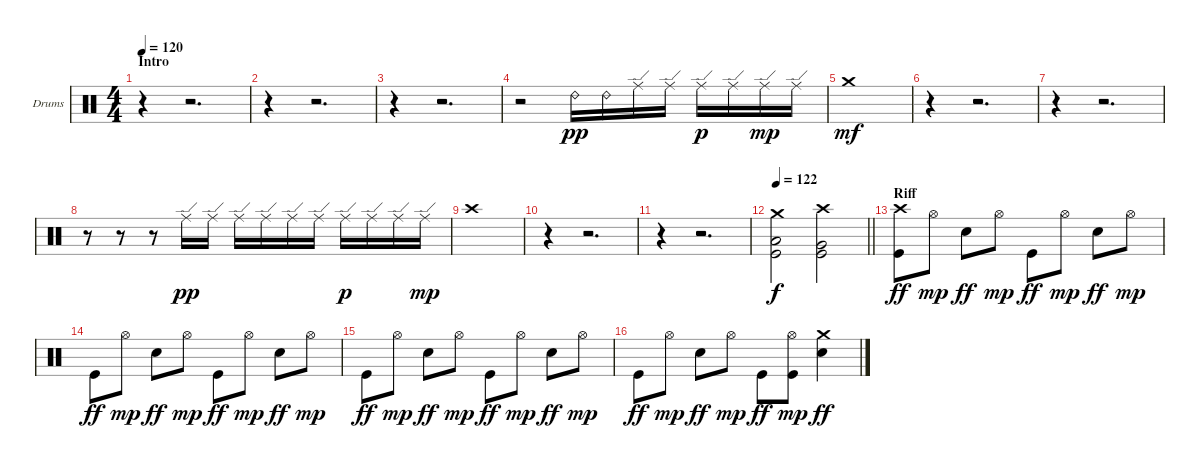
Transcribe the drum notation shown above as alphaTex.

\bracketExtendMode groupsimilarinstruments
\firstSystemTrackNameOrientation horizontal
\otherSystemsTrackNameOrientation horizontal
\track ("Brent Fitz" "Drums") {instrument percussion}
\staff {score}
\articulation defaults
\ts (4 4)
\beaming (8 2 2 2 2)
\section ("" "Intro")
\tempo 120
\clef neutral
\ks c
r.4{dy pp} r.2{d} |
r.4 r.2{d} |
r.4 r.2{d} |
r.2 "Ride (bell) 2".16 "Ride (bell) 2".16 "Ride (edge)".16 "Ride (edge)".16 "Ride (edge)".16{dy p} "Ride (edge)".16 "Ride (edge)".16{dy mp} "Ride (edge)".16 |
"Crash medium (hit)".1{dy mf} |
r.4 r.2{d} |
r.4 r.2{d} |
r.8 r.8 r.8 "Ride (edge)".16{dy pp} "Ride (edge)".16 "Ride (edge)".16 "Ride (edge)".16 "Ride (edge)".16 "Ride (edge)".16 "Ride (edge)".16{dy p} "Ride (edge)".16 "Ride (edge)".16 "Ride (edge)".16{dy mp} |
"Crash high (hit)".1 |
r.4 r.2{d} |
r.4 r.2{d} |
\tempo 122
\barLineRight lightlight
("Low Tom (hit)" "Crash medium (hit)" "Kick (hit)").2{dy f} ("Very Low Tom (hit)" "Kick (hit)" "Crash high (hit)").2 |
\section ("" "Riff")
("Kick (hit)" "Crash high (hit)").8{dy ff} "Hi-Hat (open)".8{dy mp} "Snare (hit) 2".8{dy ff} "Hi-Hat (open)".8{dy mp} "Kick (hit)".8{dy ff} "Hi-Hat (open)".8{dy mp} "Snare (hit) 2".8{dy ff} "Hi-Hat (open)".8{dy mp} |
"Kick (hit)".8{dy ff} "Hi-Hat (open)".8{dy mp} "Snare (hit) 2".8{dy ff} "Hi-Hat (open)".8{dy mp} "Kick (hit)".8{dy ff} "Hi-Hat (open)".8{dy mp} "Snare (hit) 2".8{dy ff} "Hi-Hat (open)".8{dy mp} |
"Kick (hit)".8{dy ff} "Hi-Hat (open)".8{dy mp} "Snare (hit) 2".8{dy ff} "Hi-Hat (open)".8{dy mp} "Kick (hit)".8{dy ff} "Hi-Hat (open)".8{dy mp} "Snare (hit) 2".8{dy ff} "Hi-Hat (open)".8{dy mp} |
"Kick (hit)".8{dy ff} "Hi-Hat (open)".8{dy mp} "Snare (hit) 2".8{dy ff} "Hi-Hat (open)".8{dy mp} "Kick (hit)".8{dy ff} ("Hi-Hat (open)" "Kick (hit)").8{dy mp} ("Snare (hit) 2" "Crash medium (hit)").4{dy ff}
